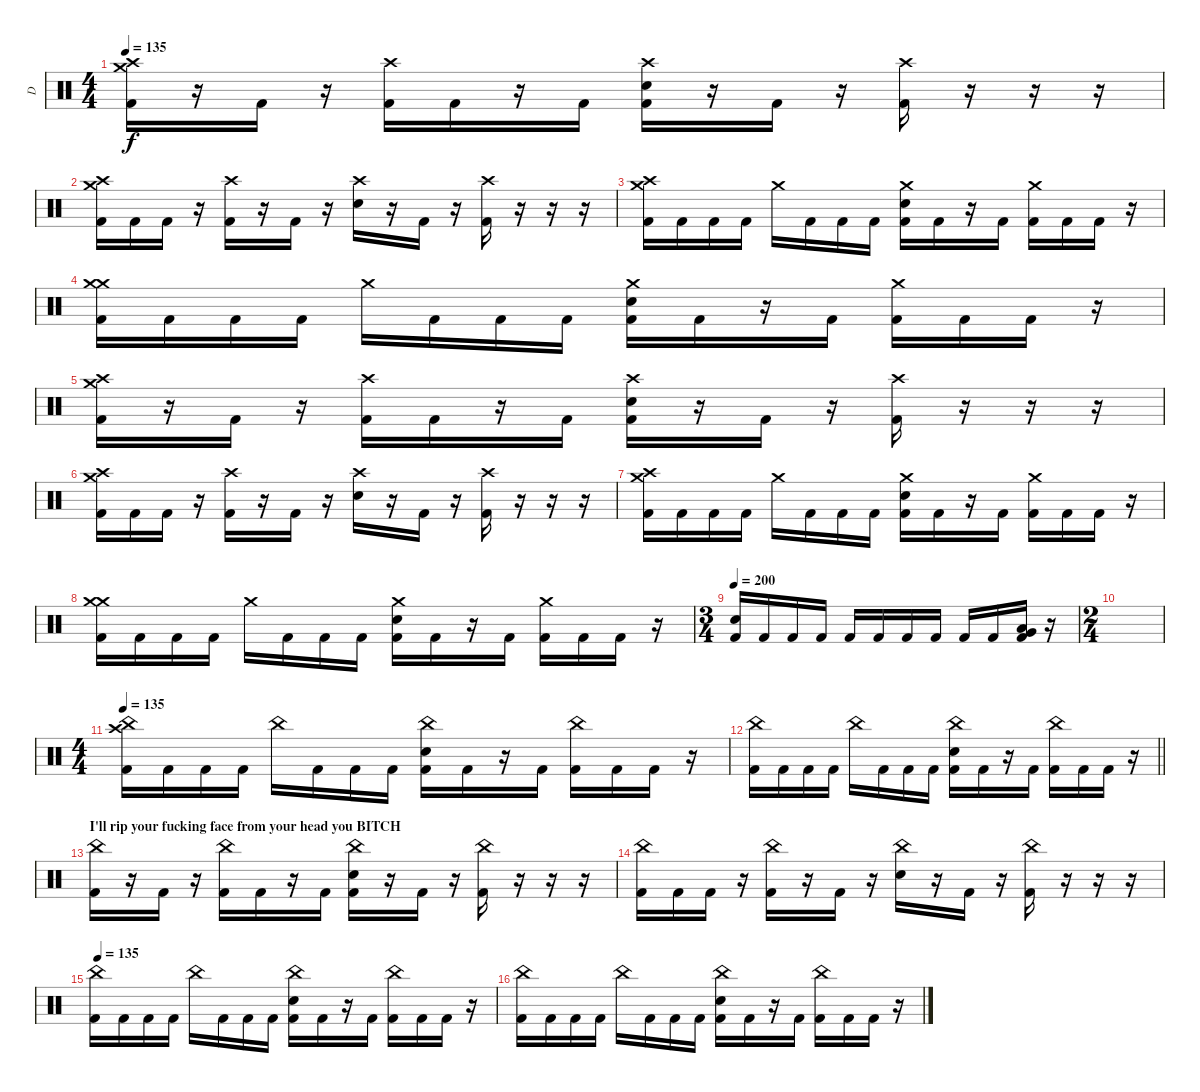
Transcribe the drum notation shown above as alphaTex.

\track ("D" "D") {instrument percussion}
\staff {score}
\articulation defaults
\ts (4 4)
\tempo 135
\clef neutral
\ks c
("Crash medium (hit)" "Crash high (hit)" "Kick (hit) 2").16{dy f} r.16 "Kick (hit) 2".16 r.16 ("Crash high (hit)" "Kick (hit) 2").16 "Kick (hit) 2".16 r.16 "Kick (hit) 2".16 ("Crash high (hit)" "Electric Snare (hit)" "Kick (hit) 2").16 r.16 "Kick (hit) 2".16 r.16 ("Crash high (hit)" "Kick (hit) 2").16 r.16 r.16 r.16 |
("Crash medium (hit)" "Crash high (hit)" "Kick (hit) 2").16 "Kick (hit) 2".16 "Kick (hit) 2".16 r.16 ("Crash high (hit)" "Kick (hit) 2").16 r.16 "Kick (hit) 2".16 r.16 ("Electric Snare (hit)" "Crash high (hit)").16 r.16 "Kick (hit) 2".16 r.16 ("Crash high (hit)" "Kick (hit) 2").16 r.16 r.16 r.16 |
("Crash high (hit)" "Crash medium (hit)" "Kick (hit) 2").16 "Kick (hit) 2".16 "Kick (hit) 2".16 "Kick (hit) 2".16 "Crash medium (hit)".16 "Kick (hit) 2".16 "Kick (hit) 2".16 "Kick (hit) 2".16 ("Electric Snare (hit)" "Crash medium (hit)" "Kick (hit) 2").16 "Kick (hit) 2".16 r.16 "Kick (hit) 2".16 ("Crash medium (hit)" "Kick (hit) 2").16 "Kick (hit) 2".16 "Kick (hit) 2".16 r.16 |
("Crash medium (hit)" "Crash medium (hit)" "Kick (hit) 2").16 "Kick (hit) 2".16 "Kick (hit) 2".16 "Kick (hit) 2".16 "Crash medium (hit)".16 "Kick (hit) 2".16 "Kick (hit) 2".16 "Kick (hit) 2".16 ("Electric Snare (hit)" "Crash medium (hit)" "Kick (hit) 2").16 "Kick (hit) 2".16 r.16 "Kick (hit) 2".16 ("Crash medium (hit)" "Kick (hit) 2").16 "Kick (hit) 2".16 "Kick (hit) 2".16 r.16 |
("Crash medium (hit)" "Crash high (hit)" "Kick (hit) 2").16 r.16 "Kick (hit) 2".16 r.16 ("Crash high (hit)" "Kick (hit) 2").16 "Kick (hit) 2".16 r.16 "Kick (hit) 2".16 ("Crash high (hit)" "Electric Snare (hit)" "Kick (hit) 2").16 r.16 "Kick (hit) 2".16 r.16 ("Crash high (hit)" "Kick (hit) 2").16 r.16 r.16 r.16 |
("Crash medium (hit)" "Crash high (hit)" "Kick (hit) 2").16 "Kick (hit) 2".16 "Kick (hit) 2".16 r.16 ("Crash high (hit)" "Kick (hit) 2").16 r.16 "Kick (hit) 2".16 r.16 ("Electric Snare (hit)" "Crash high (hit)").16 r.16 "Kick (hit) 2".16 r.16 ("Crash high (hit)" "Kick (hit) 2").16 r.16 r.16 r.16 |
("Crash high (hit)" "Crash medium (hit)" "Kick (hit) 2").16 "Kick (hit) 2".16 "Kick (hit) 2".16 "Kick (hit) 2".16 "Crash medium (hit)".16 "Kick (hit) 2".16 "Kick (hit) 2".16 "Kick (hit) 2".16 ("Electric Snare (hit)" "Crash medium (hit)" "Kick (hit) 2").16 "Kick (hit) 2".16 r.16 "Kick (hit) 2".16 ("Crash medium (hit)" "Kick (hit) 2").16 "Kick (hit) 2".16 "Kick (hit) 2".16 r.16 |
("Crash medium (hit)" "Crash medium (hit)" "Kick (hit) 2").16 "Kick (hit) 2".16 "Kick (hit) 2".16 "Kick (hit) 2".16 "Crash medium (hit)".16 "Kick (hit) 2".16 "Kick (hit) 2".16 "Kick (hit) 2".16 ("Electric Snare (hit)" "Crash medium (hit)" "Kick (hit) 2").16 "Kick (hit) 2".16 r.16 "Kick (hit) 2".16 ("Crash medium (hit)" "Kick (hit) 2").16 "Kick (hit) 2".16 "Kick (hit) 2".16 r.16 |
\ts (3 4)
\tempo 200
("Electric Snare (hit)" "Kick (hit) 2").16 "Kick (hit) 2".16 "Kick (hit) 2".16 "Kick (hit) 2".16 "Kick (hit) 2".16 "Kick (hit) 2".16 "Kick (hit) 2".16 "Kick (hit) 2".16 "Kick (hit) 2".16 "Kick (hit) 2".16 ("Low Tom (hit)" "Very Low Tom (hit)" "Kick (hit) 2").16 r.16 |
\ts (2 4)
|
\ts (4 4)
\tempo 135
("Crash high (hit)" "China (hit)" "Kick (hit) 2").16 "Kick (hit) 2".16 "Kick (hit) 2".16 "Kick (hit) 2".16 "China (hit)".16 "Kick (hit) 2".16 "Kick (hit) 2".16 "Kick (hit) 2".16 ("Electric Snare (hit)" "China (hit)" "Kick (hit) 2").16 "Kick (hit) 2".16 r.16 "Kick (hit) 2".16 ("China (hit)" "Kick (hit) 2").16 "Kick (hit) 2".16 "Kick (hit) 2".16 r.16 |
\barLineRight lightlight
("China (hit)" "Kick (hit) 2").16 "Kick (hit) 2".16 "Kick (hit) 2".16 "Kick (hit) 2".16 "China (hit)".16 "Kick (hit) 2".16 "Kick (hit) 2".16 "Kick (hit) 2".16 ("Electric Snare (hit)" "China (hit)" "Kick (hit) 2").16 "Kick (hit) 2".16 r.16 "Kick (hit) 2".16 ("China (hit)" "Kick (hit) 2").16 "Kick (hit) 2".16 "Kick (hit) 2".16 r.16 |
\section ("" "I'll rip your fucking face from your head you BITCH")
("China (hit)" "Kick (hit) 2").16 r.16 "Kick (hit) 2".16 r.16 ("China (hit)" "Kick (hit) 2").16 "Kick (hit) 2".16 r.16 "Kick (hit) 2".16 ("China (hit)" "Electric Snare (hit)" "Kick (hit) 2").16 r.16 "Kick (hit) 2".16 r.16 ("China (hit)" "Kick (hit) 2").16 r.16 r.16 r.16 |
("China (hit)" "Kick (hit) 2").16 "Kick (hit) 2".16 "Kick (hit) 2".16 r.16 ("China (hit)" "Kick (hit) 2").16 r.16 "Kick (hit) 2".16 r.16 ("Electric Snare (hit)" "China (hit)").16 r.16 "Kick (hit) 2".16 r.16 ("China (hit)" "Kick (hit) 2").16 r.16 r.16 r.16 |
\tempo 135
("China (hit)" "Kick (hit) 2").16 "Kick (hit) 2".16 "Kick (hit) 2".16 "Kick (hit) 2".16 "China (hit)".16 "Kick (hit) 2".16 "Kick (hit) 2".16 "Kick (hit) 2".16 ("Electric Snare (hit)" "China (hit)" "Kick (hit) 2").16 "Kick (hit) 2".16 r.16 "Kick (hit) 2".16 ("China (hit)" "Kick (hit) 2").16 "Kick (hit) 2".16 "Kick (hit) 2".16 r.16 |
("China (hit)" "Kick (hit) 2").16 "Kick (hit) 2".16 "Kick (hit) 2".16 "Kick (hit) 2".16 "China (hit)".16 "Kick (hit) 2".16 "Kick (hit) 2".16 "Kick (hit) 2".16 ("Electric Snare (hit)" "China (hit)" "Kick (hit) 2").16 "Kick (hit) 2".16 r.16 "Kick (hit) 2".16 ("China (hit)" "Kick (hit) 2").16 "Kick (hit) 2".16 "Kick (hit) 2".16 r.16
